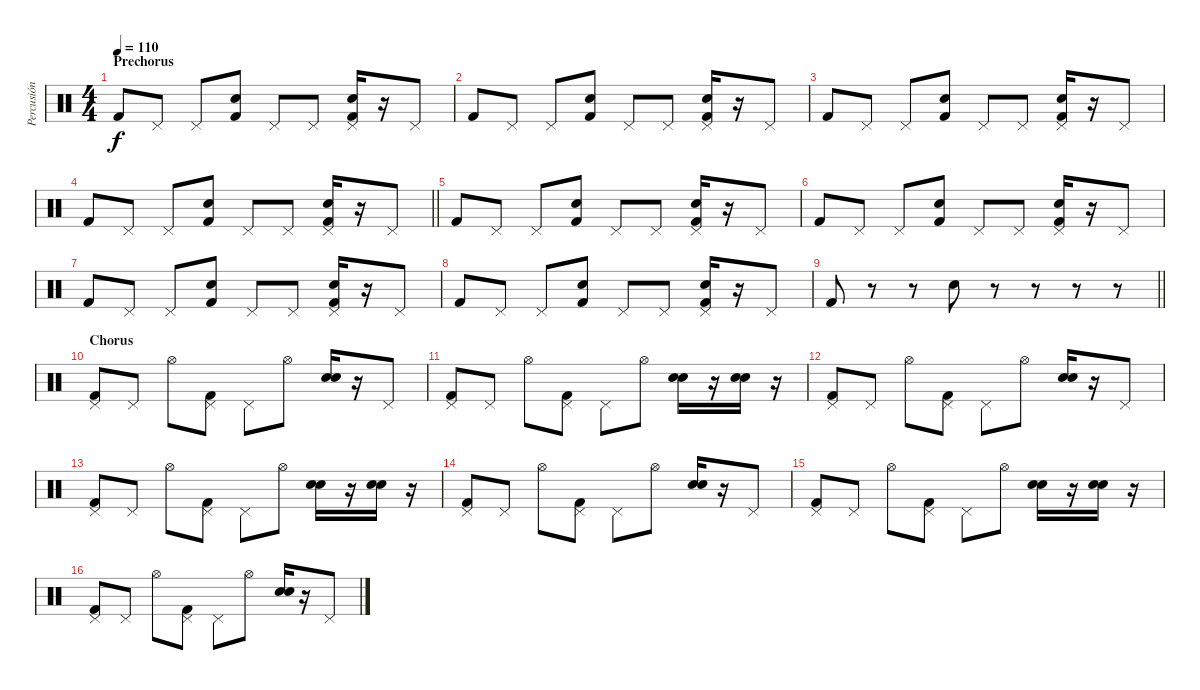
\track ("Percusión" "Percusión") {instrument percussion}
\staff {score}
\articulation defaults
\ts (4 4)
\section ("" "Prechorus")
\tempo 110
\clef neutral
\ks c "Kick (hit) 2".8{dy f} "Pedal Hi-Hat (hit)".8 "Pedal Hi-Hat (hit)".8
("Electric Snare (hit)" "Kick (hit) 2").8 "Pedal Hi-Hat (hit)".8 "Pedal Hi-Hat (hit)".8 ("Hand Clap (hit)" "Pedal Hi-Hat (hit)" "Kick (hit) 2").16{bd 60} r.16 "Pedal Hi-Hat (hit)".8 |
"Kick (hit) 2".8 "Pedal Hi-Hat (hit)".8 "Pedal Hi-Hat (hit)".8 ("Electric Snare (hit)" "Kick (hit) 2").8 "Pedal Hi-Hat (hit)".8 "Pedal Hi-Hat (hit)".8 ("Hand Clap (hit)" "Pedal Hi-Hat (hit)" "Kick (hit) 2").16{bd 60} r.16 "Pedal Hi-Hat (hit)".8 |
"Kick (hit) 2".8 "Pedal Hi-Hat (hit)".8 "Pedal Hi-Hat (hit)".8 ("Electric Snare (hit)" "Kick (hit) 2").8 "Pedal Hi-Hat (hit)".8 "Pedal Hi-Hat (hit)".8 ("Hand Clap (hit)" "Pedal Hi-Hat (hit)" "Kick (hit) 2").16{bd 60} r.16 "Pedal Hi-Hat (hit)".8 |
\barLineRight lightlight "Kick (hit) 2".8 "Pedal Hi-Hat (hit)".8 "Pedal Hi-Hat (hit)".8
("Electric Snare (hit)" "Kick (hit) 2").8 "Pedal Hi-Hat (hit)".8 "Pedal Hi-Hat (hit)".8 ("Hand Clap (hit)" "Pedal Hi-Hat (hit)" "Kick (hit) 2").16{bd 60} r.16 "Pedal Hi-Hat (hit)".8 |
"Kick (hit) 2".8 "Pedal Hi-Hat (hit)".8 "Pedal Hi-Hat (hit)".8 ("Electric Snare (hit)" "Kick (hit) 2").8 "Pedal Hi-Hat (hit)".8 "Pedal Hi-Hat (hit)".8 ("Hand Clap (hit)" "Pedal Hi-Hat (hit)" "Kick (hit) 2").16{bd 60} r.16 "Pedal Hi-Hat (hit)".8 |
"Kick (hit) 2".8 "Pedal Hi-Hat (hit)".8 "Pedal Hi-Hat (hit)".8 ("Electric Snare (hit)" "Kick (hit) 2").8 "Pedal Hi-Hat (hit)".8 "Pedal Hi-Hat (hit)".8 ("Hand Clap (hit)" "Pedal Hi-Hat (hit)" "Kick (hit) 2").16{bd 60} r.16 "Pedal Hi-Hat (hit)".8 |
"Kick (hit) 2".8 "Pedal Hi-Hat (hit)".8 "Pedal Hi-Hat (hit)".8 ("Electric Snare (hit)" "Kick (hit) 2").8 "Pedal Hi-Hat (hit)".8 "Pedal Hi-Hat (hit)".8 ("Hand Clap (hit)" "Pedal Hi-Hat (hit)" "Kick (hit) 2").16{bd 60} r.16 "Pedal Hi-Hat (hit)".8 |
"Kick (hit) 2".8 "Pedal Hi-Hat (hit)".8 "Pedal Hi-Hat (hit)".8 ("Electric Snare (hit)" "Kick (hit) 2").8 "Pedal Hi-Hat (hit)".8 "Pedal Hi-Hat (hit)".8 ("Hand Clap (hit)" "Pedal Hi-Hat (hit)" "Kick (hit) 2").16{bd 60} r.16 "Pedal Hi-Hat (hit)".8 |
\barLineRight lightlight "Kick (hit) 2".8
r.8 r.8 "Electric Snare (hit)".8 r.8 r.8 r.8 r.8 |
\section ("" "Chorus")
("Pedal Hi-Hat (hit)" "Kick (hit) 2").8 "Pedal Hi-Hat (hit)".8 "Hi-Hat (open)".8 ("Pedal Hi-Hat (hit)" "Kick (hit) 2").8 "Pedal Hi-Hat (hit)".8 "Hi-Hat (open)".8 ("Hand Clap (hit)" "Electric Snare (hit)").16{bd 60} r.16 "Pedal Hi-Hat (hit)".8 |
("Pedal Hi-Hat (hit)" "Kick (hit) 2").8 "Pedal Hi-Hat (hit)".8 "Hi-Hat (open)".8 ("Pedal Hi-Hat (hit)" "Kick (hit) 2").8 "Pedal Hi-Hat (hit)".8 "Hi-Hat (open)".8 ("Hand Clap (hit)" "Electric Snare (hit)").16{bd 60} r.16 ("Hand Clap (hit)" "Electric Snare (hit)").16{bd 60} r.16 |
("Pedal Hi-Hat (hit)" "Kick (hit) 2").8 "Pedal Hi-Hat (hit)".8 "Hi-Hat (open)".8 ("Pedal Hi-Hat (hit)" "Kick (hit) 2").8 "Pedal Hi-Hat (hit)".8 "Hi-Hat (open)".8 ("Hand Clap (hit)" "Electric Snare (hit)").16{bd 60} r.16 "Pedal Hi-Hat (hit)".8 |
("Pedal Hi-Hat (hit)" "Kick (hit) 2").8 "Pedal Hi-Hat (hit)".8 "Hi-Hat (open)".8 ("Pedal Hi-Hat (hit)" "Kick (hit) 2").8 "Pedal Hi-Hat (hit)".8 "Hi-Hat (open)".8 ("Hand Clap (hit)" "Electric Snare (hit)").16{bd 60} r.16 ("Hand Clap (hit)" "Electric Snare (hit)").16{bd 60} r.16 |
("Pedal Hi-Hat (hit)" "Kick (hit) 2").8 "Pedal Hi-Hat (hit)".8 "Hi-Hat (open)".8 ("Pedal Hi-Hat (hit)" "Kick (hit) 2").8 "Pedal Hi-Hat (hit)".8 "Hi-Hat (open)".8 ("Hand Clap (hit)" "Electric Snare (hit)").16{bd 60} r.16 "Pedal Hi-Hat (hit)".8 |
("Pedal Hi-Hat (hit)" "Kick (hit) 2").8 "Pedal Hi-Hat (hit)".8 "Hi-Hat (open)".8 ("Pedal Hi-Hat (hit)" "Kick (hit) 2").8 "Pedal Hi-Hat (hit)".8 "Hi-Hat (open)".8 ("Hand Clap (hit)" "Electric Snare (hit)").16{bd 60} r.16 ("Hand Clap (hit)" "Electric Snare (hit)").16{bd 60} r.16 |
("Pedal Hi-Hat (hit)" "Kick (hit) 2").8 "Pedal Hi-Hat (hit)".8 "Hi-Hat (open)".8 ("Pedal Hi-Hat (hit)" "Kick (hit) 2").8 "Pedal Hi-Hat (hit)".8 "Hi-Hat (open)".8 ("Hand Clap (hit)" "Electric Snare (hit)").16{bd 60} r.16 "Pedal Hi-Hat (hit)".8
